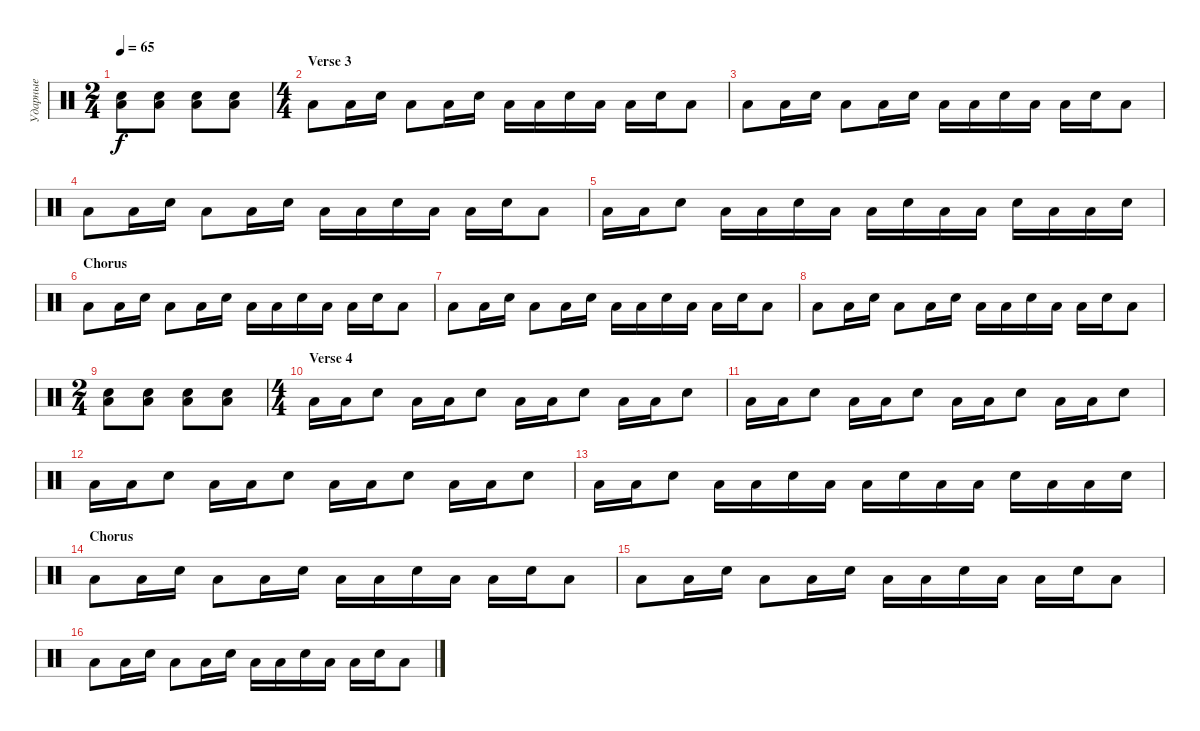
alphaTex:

\track ("Ударные" "Ударные") {instrument percussion}
\staff {score}
\articulation defaults
\ts (2 4)
\tempo 65
\clef neutral
\ks c
("Snare (hit) 2" "Low Tom (hit)").8{dy f} ("Snare (hit) 2" "Low Tom (hit)").8 ("Snare (hit) 2" "Low Tom (hit)").8 ("Snare (hit) 2" "Low Tom (hit)").8 |
\ts (4 4)
\section ("" "Verse 3")
"Low Tom (hit)".8 "Low Tom (hit)".16 "Snare (hit) 2".16 "Low Tom (hit)".8 "Low Tom (hit)".16 "Snare (hit) 2".16 "Low Tom (hit)".16 "Low Tom (hit)".16 "Snare (hit) 2".16 "Low Tom (hit)".16 "Low Tom (hit)".16 "Snare (hit) 2".16 "Low Tom (hit)".8 |
"Low Tom (hit)".8 "Low Tom (hit)".16 "Snare (hit) 2".16 "Low Tom (hit)".8 "Low Tom (hit)".16 "Snare (hit) 2".16 "Low Tom (hit)".16 "Low Tom (hit)".16 "Snare (hit) 2".16 "Low Tom (hit)".16 "Low Tom (hit)".16 "Snare (hit) 2".16 "Low Tom (hit)".8 |
"Low Tom (hit)".8 "Low Tom (hit)".16 "Snare (hit) 2".16 "Low Tom (hit)".8 "Low Tom (hit)".16 "Snare (hit) 2".16 "Low Tom (hit)".16 "Low Tom (hit)".16 "Snare (hit) 2".16 "Low Tom (hit)".16 "Low Tom (hit)".16 "Snare (hit) 2".16 "Low Tom (hit)".8 |
"Low Tom (hit)".16 "Low Tom (hit)".16 "Snare (hit) 2".8 "Low Tom (hit)".16 "Low Tom (hit)".16 "Snare (hit) 2".16 "Low Tom (hit)".16 "Low Tom (hit)".16 "Snare (hit) 2".16 "Low Tom (hit)".16 "Low Tom (hit)".16 "Snare (hit) 2".16 "Low Tom (hit)".16 "Low Tom (hit)".16 "Snare (hit) 2".16 |
\section ("" "Chorus")
"Low Tom (hit)".8 "Low Tom (hit)".16 "Snare (hit) 2".16 "Low Tom (hit)".8 "Low Tom (hit)".16 "Snare (hit) 2".16 "Low Tom (hit)".16 "Low Tom (hit)".16 "Snare (hit) 2".16 "Low Tom (hit)".16 "Low Tom (hit)".16 "Snare (hit) 2".16 "Low Tom (hit)".8 |
"Low Tom (hit)".8 "Low Tom (hit)".16 "Snare (hit) 2".16 "Low Tom (hit)".8 "Low Tom (hit)".16 "Snare (hit) 2".16 "Low Tom (hit)".16 "Low Tom (hit)".16 "Snare (hit) 2".16 "Low Tom (hit)".16 "Low Tom (hit)".16 "Snare (hit) 2".16 "Low Tom (hit)".8 |
"Low Tom (hit)".8 "Low Tom (hit)".16 "Snare (hit) 2".16 "Low Tom (hit)".8 "Low Tom (hit)".16 "Snare (hit) 2".16 "Low Tom (hit)".16 "Low Tom (hit)".16 "Snare (hit) 2".16 "Low Tom (hit)".16 "Low Tom (hit)".16 "Snare (hit) 2".16 "Low Tom (hit)".8 |
\ts (2 4)
("Snare (hit) 2" "Low Tom (hit)").8 ("Snare (hit) 2" "Low Tom (hit)").8 ("Snare (hit) 2" "Low Tom (hit)").8 ("Snare (hit) 2" "Low Tom (hit)").8 |
\ts (4 4)
\section ("" "Verse 4")
"Low Tom (hit)".16 "Low Tom (hit)".16 "Snare (hit) 2".8 "Low Tom (hit)".16 "Low Tom (hit)".16 "Snare (hit) 2".8 "Low Tom (hit)".16 "Low Tom (hit)".16 "Snare (hit) 2".8 "Low Tom (hit)".16 "Low Tom (hit)".16 "Snare (hit) 2".8 |
"Low Tom (hit)".16 "Low Tom (hit)".16 "Snare (hit) 2".8 "Low Tom (hit)".16 "Low Tom (hit)".16 "Snare (hit) 2".8 "Low Tom (hit)".16 "Low Tom (hit)".16 "Snare (hit) 2".8 "Low Tom (hit)".16 "Low Tom (hit)".16 "Snare (hit) 2".8 |
"Low Tom (hit)".16 "Low Tom (hit)".16 "Snare (hit) 2".8 "Low Tom (hit)".16 "Low Tom (hit)".16 "Snare (hit) 2".8 "Low Tom (hit)".16 "Low Tom (hit)".16 "Snare (hit) 2".8 "Low Tom (hit)".16 "Low Tom (hit)".16 "Snare (hit) 2".8 |
"Low Tom (hit)".16 "Low Tom (hit)".16 "Snare (hit) 2".8 "Low Tom (hit)".16 "Low Tom (hit)".16 "Snare (hit) 2".16 "Low Tom (hit)".16 "Low Tom (hit)".16 "Snare (hit) 2".16 "Low Tom (hit)".16 "Low Tom (hit)".16 "Snare (hit) 2".16 "Low Tom (hit)".16 "Low Tom (hit)".16 "Snare (hit) 2".16 |
\section ("" "Chorus")
"Low Tom (hit)".8 "Low Tom (hit)".16 "Snare (hit) 2".16 "Low Tom (hit)".8 "Low Tom (hit)".16 "Snare (hit) 2".16 "Low Tom (hit)".16 "Low Tom (hit)".16 "Snare (hit) 2".16 "Low Tom (hit)".16 "Low Tom (hit)".16 "Snare (hit) 2".16 "Low Tom (hit)".8 |
"Low Tom (hit)".8 "Low Tom (hit)".16 "Snare (hit) 2".16 "Low Tom (hit)".8 "Low Tom (hit)".16 "Snare (hit) 2".16 "Low Tom (hit)".16 "Low Tom (hit)".16 "Snare (hit) 2".16 "Low Tom (hit)".16 "Low Tom (hit)".16 "Snare (hit) 2".16 "Low Tom (hit)".8 |
"Low Tom (hit)".8 "Low Tom (hit)".16 "Snare (hit) 2".16 "Low Tom (hit)".8 "Low Tom (hit)".16 "Snare (hit) 2".16 "Low Tom (hit)".16 "Low Tom (hit)".16 "Snare (hit) 2".16 "Low Tom (hit)".16 "Low Tom (hit)".16 "Snare (hit) 2".16 "Low Tom (hit)".8
